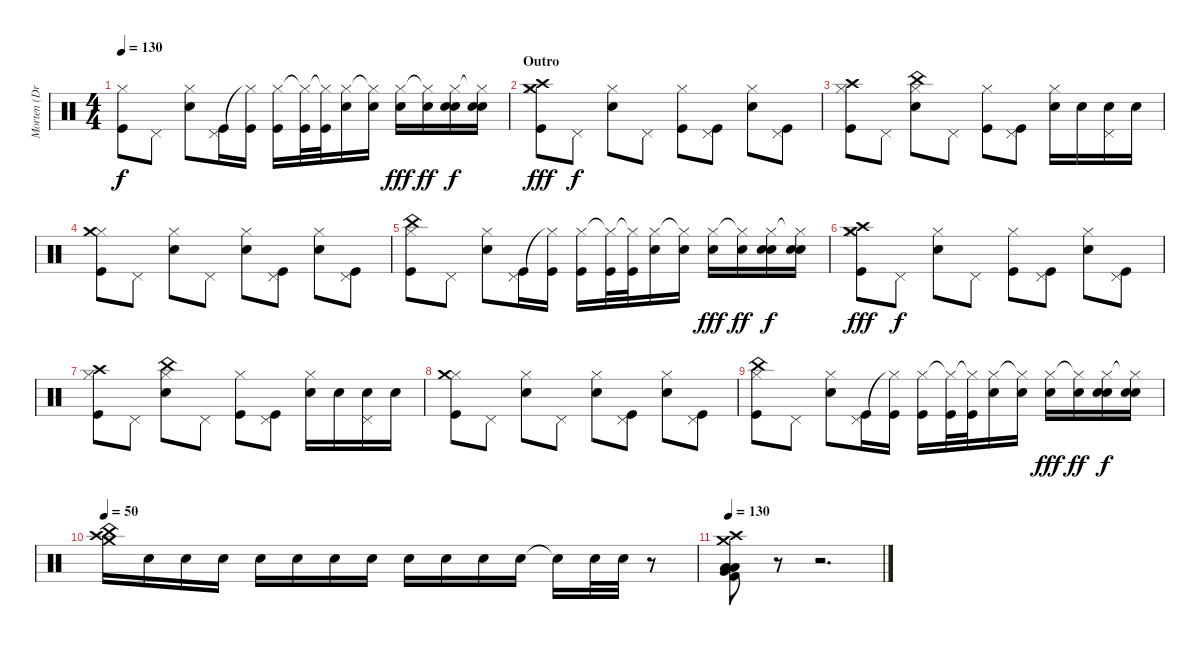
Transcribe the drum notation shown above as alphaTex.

\track ("Morten (Drums)" "Morten (Dr") {instrument percussion}
\staff {score}
\articulation defaults
\ts (4 4)
\tempo 130
\clef neutral
\ks c
("Hi-Hat (closed)" "Kick (hit)").8{dy f} "Pedal Hi-Hat (hit)".8 ("Hi-Hat (closed)" "Snare (hit) 2").8 ("Pedal Hi-Hat (hit)" "Kick (hit)").16 ("Hi-Hat (closed)"{t} "Kick (hit)").16 ("Hi-Hat (closed)" "Kick (hit)").16 ("Hi-Hat (closed)"{t} "Kick (hit)").32 ("Hi-Hat (closed)"{t} "Kick (hit)").32 ("Hi-Hat (closed)" "Snare (hit) 2").16 ("Hi-Hat (closed)"{t} "Snare (hit) 2").16 ("Hi-Hat (closed)" "Snare (hit) 2").16{dy fff} ("Hi-Hat (closed)"{t} "Snare (hit) 2").16{dy ff} ("Hi-Hat (closed)" "Snare (hit) 2" "Snare (hit) 2").16{dy f} ("Hi-Hat (closed)"{t} "Snare (hit) 2" "Snare (hit) 2").16 |
\section ("" "Outro")
("Hi-Hat (closed)" "Kick (hit)" "Crash high (hit)" "Crash medium (hit)").8{dy fff} "Pedal Hi-Hat (hit)".8{dy f} ("Hi-Hat (closed)" "Snare (hit) 2").8 "Pedal Hi-Hat (hit)".8 ("Hi-Hat (closed)" "Kick (hit)").8 ("Pedal Hi-Hat (hit)" "Kick (hit)").8 ("Hi-Hat (closed)" "Snare (hit) 2").8 ("Pedal Hi-Hat (hit)" "Kick (hit)").8 |
("Hi-Hat (closed)" "Kick (hit)" "Crash high (hit)").8 "Pedal Hi-Hat (hit)".8 ("Hi-Hat (closed)" "Snare (hit) 2" "China (hit)").8 "Pedal Hi-Hat (hit)".8 ("Hi-Hat (closed)" "Kick (hit)").8 ("Pedal Hi-Hat (hit)" "Kick (hit)").8 ("Hi-Hat (closed)" "Snare (hit) 2").16 "Snare (hit) 2".16 ("Pedal Hi-Hat (hit)" "Snare (hit) 2").16 "Snare (hit) 2".16 |
("Hi-Hat (closed)" "Kick (hit)" "Crash medium (hit)").8 "Pedal Hi-Hat (hit)".8 ("Hi-Hat (closed)" "Snare (hit) 2").8 "Pedal Hi-Hat (hit)".8 ("Hi-Hat (closed)" "Snare (hit) 2").8 ("Pedal Hi-Hat (hit)" "Kick (hit)").8 ("Hi-Hat (closed)" "Snare (hit) 2").8 ("Pedal Hi-Hat (hit)" "Kick (hit)").8 |
("China (hit)" "Hi-Hat (closed)" "Kick (hit)").8 "Pedal Hi-Hat (hit)".8 ("Hi-Hat (closed)" "Snare (hit) 2").8 ("Pedal Hi-Hat (hit)" "Kick (hit)").16 ("Hi-Hat (closed)"{t} "Kick (hit)").16 ("Hi-Hat (closed)" "Kick (hit)").16 ("Hi-Hat (closed)"{t} "Kick (hit)").32 ("Hi-Hat (closed)"{t} "Kick (hit)").32 ("Hi-Hat (closed)" "Snare (hit) 2").16 ("Hi-Hat (closed)"{t} "Snare (hit) 2").16 ("Hi-Hat (closed)" "Snare (hit) 2").16{dy fff} ("Hi-Hat (closed)"{t} "Snare (hit) 2").16{dy ff} ("Hi-Hat (closed)" "Snare (hit) 2" "Snare (hit) 2").16{dy f} ("Hi-Hat (closed)"{t} "Snare (hit) 2" "Snare (hit) 2").16 |
("Hi-Hat (closed)" "Kick (hit)" "Crash high (hit)" "Crash medium (hit)").8{dy fff} "Pedal Hi-Hat (hit)".8{dy f} ("Hi-Hat (closed)" "Snare (hit) 2").8 "Pedal Hi-Hat (hit)".8 ("Hi-Hat (closed)" "Kick (hit)").8 ("Pedal Hi-Hat (hit)" "Kick (hit)").8 ("Hi-Hat (closed)" "Snare (hit) 2").8 ("Pedal Hi-Hat (hit)" "Kick (hit)").8 |
("Hi-Hat (closed)" "Kick (hit)" "Crash high (hit)").8 "Pedal Hi-Hat (hit)".8 ("Hi-Hat (closed)" "Snare (hit) 2" "China (hit)").8 "Pedal Hi-Hat (hit)".8 ("Hi-Hat (closed)" "Kick (hit)").8 ("Pedal Hi-Hat (hit)" "Kick (hit)").8 ("Hi-Hat (closed)" "Snare (hit) 2").16 "Snare (hit) 2".16 ("Pedal Hi-Hat (hit)" "Snare (hit) 2").16 "Snare (hit) 2".16 |
("Hi-Hat (closed)" "Kick (hit)" "Crash medium (hit)").8 "Pedal Hi-Hat (hit)".8 ("Hi-Hat (closed)" "Snare (hit) 2").8 "Pedal Hi-Hat (hit)".8 ("Hi-Hat (closed)" "Snare (hit) 2").8 ("Pedal Hi-Hat (hit)" "Kick (hit)").8 ("Hi-Hat (closed)" "Snare (hit) 2").8 ("Pedal Hi-Hat (hit)" "Kick (hit)").8 |
("China (hit)" "Hi-Hat (closed)" "Kick (hit)").8 "Pedal Hi-Hat (hit)".8 ("Hi-Hat (closed)" "Snare (hit) 2").8 ("Pedal Hi-Hat (hit)" "Kick (hit)").16 ("Hi-Hat (closed)"{t} "Kick (hit)").16 ("Hi-Hat (closed)" "Kick (hit)").16 ("Hi-Hat (closed)"{t} "Kick (hit)").32 ("Hi-Hat (closed)"{t} "Kick (hit)").32 ("Hi-Hat (closed)" "Snare (hit) 2").16 ("Hi-Hat (closed)"{t} "Snare (hit) 2").16 ("Hi-Hat (closed)" "Snare (hit) 2").16{dy fff} ("Hi-Hat (closed)"{t} "Snare (hit) 2").16{dy ff} ("Hi-Hat (closed)" "Snare (hit) 2" "Snare (hit) 2").16{dy f} ("Hi-Hat (closed)"{t} "Snare (hit) 2" "Snare (hit) 2").16 |
\tempo 50
("China (hit)" "Crash high (hit)" "Crash medium (hit)").16 "Snare (hit) 2".16 "Snare (hit) 2".16 "Snare (hit) 2".16 "Snare (hit) 2".16 "Snare (hit) 2".16 "Snare (hit) 2".16 "Snare (hit) 2".16 "Snare (hit) 2".16 "Snare (hit) 2".16 "Snare (hit) 2".16 "Snare (hit) 2".16 "Snare (hit)"{t}.16 "Snare (hit) 2".32 "Snare (hit) 2".32 r.8 |
\tempo 130
("Crash high (hit)" "Crash medium (hit)" "Kick (hit) 2" "Low Tom (hit)" "Low Floor Tom (hit)" "Very Low Tom (hit)").8 r.8 r.2{d}
